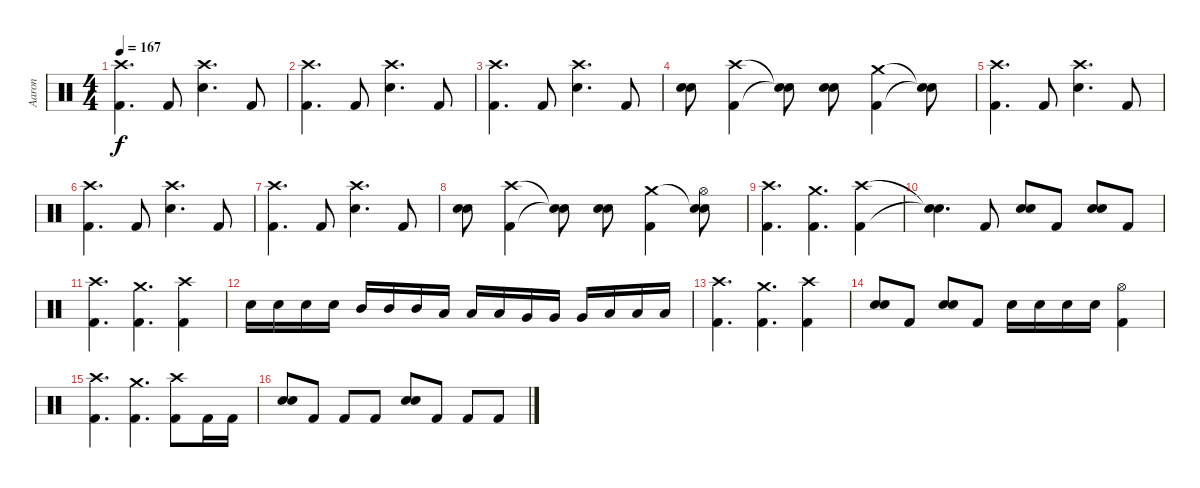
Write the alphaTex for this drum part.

\track ("Aaron" "Aaron") {instrument percussion}
\staff {score}
\articulation defaults
\ts (4 4)
\tempo 167
\clef neutral
\ks c
("Crash high (hit)" "Kick (hit) 2").4{d dy f} "Kick (hit) 2".8 ("Crash high (hit)" "Electric Snare (hit)").4{d} "Kick (hit) 2".8 |
("Crash high (hit)" "Kick (hit) 2").4{d} "Kick (hit) 2".8 ("Crash high (hit)" "Electric Snare (hit)").4{d} "Kick (hit) 2".8 |
("Crash high (hit)" "Kick (hit) 2").4{d} "Kick (hit) 2".8 ("Crash high (hit)" "Electric Snare (hit)").4{d} "Kick (hit) 2".8 |
("Electric Snare (hit)" "Electric Snare (hit)").8 ("Crash high (hit)" "Kick (hit) 2").4 ("Snare (hit)"{t} "Snare (hit)"{t}).8 ("Electric Snare (hit)" "Electric Snare (hit)").8 ("Crash medium (hit)" "Kick (hit) 2").4 ("Snare (hit)"{t} "Snare (hit)"{t}).8 |
("Crash high (hit)" "Kick (hit) 2").4{d} "Kick (hit) 2".8 ("Crash high (hit)" "Electric Snare (hit)").4{d} "Kick (hit) 2".8 |
("Crash high (hit)" "Kick (hit) 2").4{d} "Kick (hit) 2".8 ("Crash high (hit)" "Electric Snare (hit)").4{d} "Kick (hit) 2".8 |
("Crash high (hit)" "Kick (hit) 2").4{d} "Kick (hit) 2".8 ("Crash high (hit)" "Electric Snare (hit)").4{d} "Kick (hit) 2".8 |
("Electric Snare (hit)" "Electric Snare (hit)").8 ("Crash high (hit)" "Kick (hit) 2").4 ("Snare (hit)"{t} "Snare (hit)"{t}).8 ("Electric Snare (hit)" "Electric Snare (hit)").8 ("Crash medium (hit)" "Kick (hit) 2").4 ("Snare (hit)"{t} "Hi-Hat (open)" "Snare (hit)").8 |
("Crash high (hit)" "Kick (hit) 2").4{d} ("Crash medium (hit)" "Kick (hit) 2").4{d} ("Crash high (hit)" "Kick (hit) 2").4 |
("Snare (hit)"{t} "Snare (hit)"{t}).4{d} "Kick (hit) 2".8 ("Electric Snare (hit)" "Electric Snare (hit)").8 "Kick (hit) 2".8 ("Electric Snare (hit)" "Electric Snare (hit)").8 "Kick (hit) 2".8 |
("Crash high (hit)" "Kick (hit) 2").4{d} ("Crash medium (hit)" "Kick (hit) 2").4{d} ("Crash high (hit)" "Kick (hit) 2").4 |
"Electric Snare (hit)".16 "Electric Snare (hit)".16 "Electric Snare (hit)".16 "Electric Snare (hit)".16 "Mid Tom (hit)".16 "Mid Tom (hit)".16 "Mid Tom (hit)".16 "Low Tom (hit)".16 "Low Tom (hit)".16 "Low Tom (hit)".16 "Very Low Tom (hit)".16 "Very Low Tom (hit)".16 "Very Low Tom (hit)".16 "Low Floor Tom (hit)".16 "Low Floor Tom (hit)".16 "Low Floor Tom (hit)".16 |
("Crash high (hit)" "Kick (hit) 2").4{d} ("Crash medium (hit)" "Kick (hit) 2").4{d} ("Crash high (hit)" "Kick (hit) 2").4 |
("Electric Snare (hit)" "Electric Snare (hit)").8 "Kick (hit) 2".8 ("Electric Snare (hit)" "Electric Snare (hit)").8 "Kick (hit) 2".8 "Electric Snare (hit)".16 "Electric Snare (hit)".16 "Electric Snare (hit)".16 "Electric Snare (hit)".16 ("Hi-Hat (open)" "Kick (hit) 2").4 |
("Crash high (hit)" "Kick (hit) 2").4{d} ("Crash medium (hit)" "Kick (hit) 2").4{d} ("Crash high (hit)" "Kick (hit) 2").8 "Kick (hit) 2".16 "Kick (hit) 2".16 |
("Electric Snare (hit)" "Electric Snare (hit)").8 "Kick (hit) 2".8 "Kick (hit) 2".8 "Kick (hit) 2".8 ("Electric Snare (hit)" "Electric Snare (hit)").8 "Kick (hit) 2".8 "Kick (hit) 2".8 "Kick (hit) 2".8
